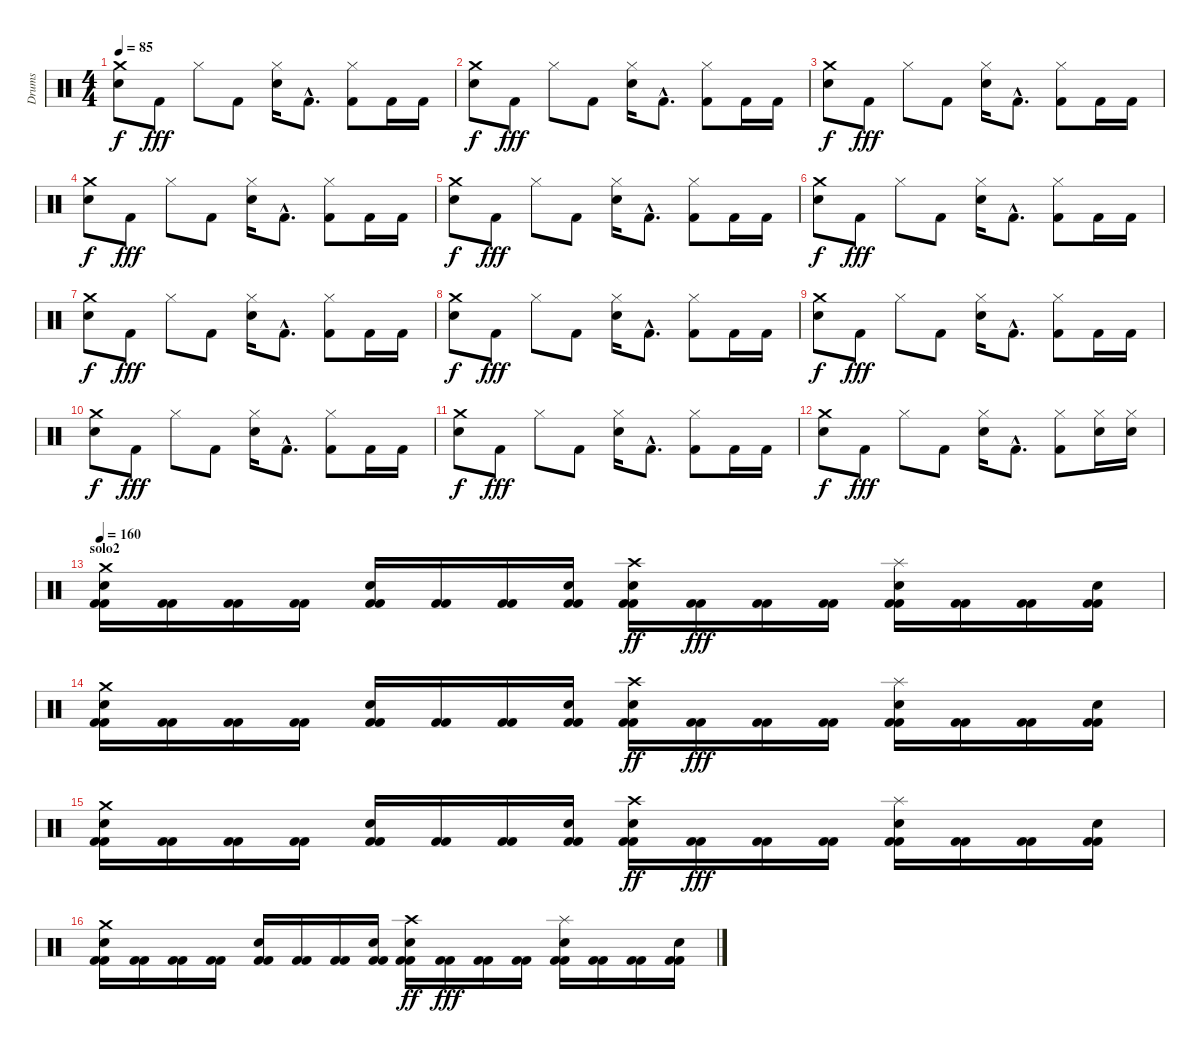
\track ("Drums" "Drums") {instrument percussion}
\staff {score}
\articulation defaults
\ts (4 4)
\tempo 85
\clef neutral
\ks c
("Crash medium (hit)" "Electric Snare (hit)").8{dy f} "Kick (hit) 2".8{dy fff} "Hi-Hat (closed)".8 "Kick (hit) 2".8 ("Hi-Hat (closed)" "Electric Snare (hit)").16 "Kick (hit) 2"{hac}.8{d} ("Hi-Hat (closed)" "Kick (hit) 2").8 "Kick (hit) 2".16 "Kick (hit) 2".16 |
("Crash medium (hit)" "Electric Snare (hit)").8{dy f} "Kick (hit) 2".8{dy fff} "Hi-Hat (closed)".8 "Kick (hit) 2".8 ("Hi-Hat (closed)" "Electric Snare (hit)").16 "Kick (hit) 2"{hac}.8{d} ("Hi-Hat (closed)" "Kick (hit) 2").8 "Kick (hit) 2".16 "Kick (hit) 2".16 |
("Crash medium (hit)" "Electric Snare (hit)").8{dy f} "Kick (hit) 2".8{dy fff} "Hi-Hat (closed)".8 "Kick (hit) 2".8 ("Hi-Hat (closed)" "Electric Snare (hit)").16 "Kick (hit) 2"{hac}.8{d} ("Hi-Hat (closed)" "Kick (hit) 2").8 "Kick (hit) 2".16 "Kick (hit) 2".16 |
("Crash medium (hit)" "Electric Snare (hit)").8{dy f} "Kick (hit) 2".8{dy fff} "Hi-Hat (closed)".8 "Kick (hit) 2".8 ("Hi-Hat (closed)" "Electric Snare (hit)").16 "Kick (hit) 2"{hac}.8{d} ("Hi-Hat (closed)" "Kick (hit) 2").8 "Kick (hit) 2".16 "Kick (hit) 2".16 |
("Crash medium (hit)" "Electric Snare (hit)").8{dy f} "Kick (hit) 2".8{dy fff} "Hi-Hat (closed)".8 "Kick (hit) 2".8 ("Hi-Hat (closed)" "Electric Snare (hit)").16 "Kick (hit) 2"{hac}.8{d} ("Hi-Hat (closed)" "Kick (hit) 2").8 "Kick (hit) 2".16 "Kick (hit) 2".16 |
("Crash medium (hit)" "Electric Snare (hit)").8{dy f} "Kick (hit) 2".8{dy fff} "Hi-Hat (closed)".8 "Kick (hit) 2".8 ("Hi-Hat (closed)" "Electric Snare (hit)").16 "Kick (hit) 2"{hac}.8{d} ("Hi-Hat (closed)" "Kick (hit) 2").8 "Kick (hit) 2".16 "Kick (hit) 2".16 |
("Crash medium (hit)" "Electric Snare (hit)").8{dy f} "Kick (hit) 2".8{dy fff} "Hi-Hat (closed)".8 "Kick (hit) 2".8 ("Hi-Hat (closed)" "Electric Snare (hit)").16 "Kick (hit) 2"{hac}.8{d} ("Hi-Hat (closed)" "Kick (hit) 2").8 "Kick (hit) 2".16 "Kick (hit) 2".16 |
("Crash medium (hit)" "Electric Snare (hit)").8{dy f} "Kick (hit) 2".8{dy fff} "Hi-Hat (closed)".8 "Kick (hit) 2".8 ("Hi-Hat (closed)" "Electric Snare (hit)").16 "Kick (hit) 2"{hac}.8{d} ("Hi-Hat (closed)" "Kick (hit) 2").8 "Kick (hit) 2".16 "Kick (hit) 2".16 |
("Crash medium (hit)" "Electric Snare (hit)").8{dy f} "Kick (hit) 2".8{dy fff} "Hi-Hat (closed)".8 "Kick (hit) 2".8 ("Hi-Hat (closed)" "Electric Snare (hit)").16 "Kick (hit) 2"{hac}.8{d} ("Hi-Hat (closed)" "Kick (hit) 2").8 "Kick (hit) 2".16 "Kick (hit) 2".16 |
("Crash medium (hit)" "Electric Snare (hit)").8{dy f} "Kick (hit) 2".8{dy fff} "Hi-Hat (closed)".8 "Kick (hit) 2".8 ("Hi-Hat (closed)" "Electric Snare (hit)").16 "Kick (hit) 2"{hac}.8{d} ("Hi-Hat (closed)" "Kick (hit) 2").8 "Kick (hit) 2".16 "Kick (hit) 2".16 |
("Crash medium (hit)" "Electric Snare (hit)").8{dy f} "Kick (hit) 2".8{dy fff} "Hi-Hat (closed)".8 "Kick (hit) 2".8 ("Hi-Hat (closed)" "Electric Snare (hit)").16 "Kick (hit) 2"{hac}.8{d} ("Hi-Hat (closed)" "Kick (hit) 2").8 "Kick (hit) 2".16 "Kick (hit) 2".16 |
("Crash medium (hit)" "Electric Snare (hit)").8{dy f} "Kick (hit) 2".8{dy fff} "Hi-Hat (closed)".8 "Kick (hit) 2".8 ("Hi-Hat (closed)" "Electric Snare (hit)").16 "Kick (hit) 2"{hac}.8{d} ("Hi-Hat (closed)" "Kick (hit) 2").8 ("Hi-Hat (closed)" "Electric Snare (hit)").16 ("Hi-Hat (closed)" "Electric Snare (hit)").16 |
\section ("" "solo2")
\tempo 160
("Kick (hit) 2" "Kick (hit) 2" "Electric Snare (hit)" "Crash medium (hit)").16 ("Kick (hit) 2" "Kick (hit) 2").16 ("Kick (hit) 2" "Kick (hit) 2").16 ("Kick (hit) 2" "Kick (hit) 2").16 ("Kick (hit) 2" "Kick (hit) 2" "Electric Snare (hit)").16 ("Kick (hit) 2" "Kick (hit) 2").16 ("Kick (hit) 2" "Kick (hit) 2").16 ("Kick (hit) 2" "Kick (hit) 2" "Electric Snare (hit)").16 ("Kick (hit) 2" "Kick (hit) 2" "Electric Snare (hit)" "Crash high (hit)").16{dy ff} ("Kick (hit) 2" "Kick (hit) 2").16{dy fff} ("Kick (hit) 2" "Kick (hit) 2").16 ("Kick (hit) 2" "Kick (hit) 2").16 ("Kick (hit) 2" "Kick (hit) 2" "Electric Snare (hit)" "Splash (hit)").16 ("Kick (hit) 2" "Kick (hit) 2").16 ("Kick (hit) 2" "Kick (hit) 2").16 ("Kick (hit) 2" "Kick (hit) 2" "Electric Snare (hit)").16 |
("Kick (hit) 2" "Kick (hit) 2" "Electric Snare (hit)" "Crash medium (hit)").16 ("Kick (hit) 2" "Kick (hit) 2").16 ("Kick (hit) 2" "Kick (hit) 2").16 ("Kick (hit) 2" "Kick (hit) 2").16 ("Kick (hit) 2" "Kick (hit) 2" "Electric Snare (hit)").16 ("Kick (hit) 2" "Kick (hit) 2").16 ("Kick (hit) 2" "Kick (hit) 2").16 ("Kick (hit) 2" "Kick (hit) 2" "Electric Snare (hit)").16 ("Kick (hit) 2" "Kick (hit) 2" "Electric Snare (hit)" "Crash high (hit)").16{dy ff} ("Kick (hit) 2" "Kick (hit) 2").16{dy fff} ("Kick (hit) 2" "Kick (hit) 2").16 ("Kick (hit) 2" "Kick (hit) 2").16 ("Kick (hit) 2" "Kick (hit) 2" "Electric Snare (hit)" "Splash (hit)").16 ("Kick (hit) 2" "Kick (hit) 2").16 ("Kick (hit) 2" "Kick (hit) 2").16 ("Kick (hit) 2" "Kick (hit) 2" "Electric Snare (hit)").16 |
("Kick (hit) 2" "Kick (hit) 2" "Electric Snare (hit)" "Crash medium (hit)").16 ("Kick (hit) 2" "Kick (hit) 2").16 ("Kick (hit) 2" "Kick (hit) 2").16 ("Kick (hit) 2" "Kick (hit) 2").16 ("Kick (hit) 2" "Kick (hit) 2" "Electric Snare (hit)").16 ("Kick (hit) 2" "Kick (hit) 2").16 ("Kick (hit) 2" "Kick (hit) 2").16 ("Kick (hit) 2" "Kick (hit) 2" "Electric Snare (hit)").16 ("Kick (hit) 2" "Kick (hit) 2" "Electric Snare (hit)" "Crash high (hit)").16{dy ff} ("Kick (hit) 2" "Kick (hit) 2").16{dy fff} ("Kick (hit) 2" "Kick (hit) 2").16 ("Kick (hit) 2" "Kick (hit) 2").16 ("Kick (hit) 2" "Kick (hit) 2" "Electric Snare (hit)" "Splash (hit)").16 ("Kick (hit) 2" "Kick (hit) 2").16 ("Kick (hit) 2" "Kick (hit) 2").16 ("Kick (hit) 2" "Kick (hit) 2" "Electric Snare (hit)").16 |
("Kick (hit) 2" "Kick (hit) 2" "Electric Snare (hit)" "Crash medium (hit)").16 ("Kick (hit) 2" "Kick (hit) 2").16 ("Kick (hit) 2" "Kick (hit) 2").16 ("Kick (hit) 2" "Kick (hit) 2").16 ("Kick (hit) 2" "Kick (hit) 2" "Electric Snare (hit)").16 ("Kick (hit) 2" "Kick (hit) 2").16 ("Kick (hit) 2" "Kick (hit) 2").16 ("Kick (hit) 2" "Kick (hit) 2" "Electric Snare (hit)").16 ("Kick (hit) 2" "Kick (hit) 2" "Electric Snare (hit)" "Crash high (hit)").16{dy ff} ("Kick (hit) 2" "Kick (hit) 2").16{dy fff} ("Kick (hit) 2" "Kick (hit) 2").16 ("Kick (hit) 2" "Kick (hit) 2").16 ("Kick (hit) 2" "Kick (hit) 2" "Electric Snare (hit)" "Splash (hit)").16 ("Kick (hit) 2" "Kick (hit) 2").16 ("Kick (hit) 2" "Kick (hit) 2").16 ("Kick (hit) 2" "Kick (hit) 2" "Electric Snare (hit)").16
